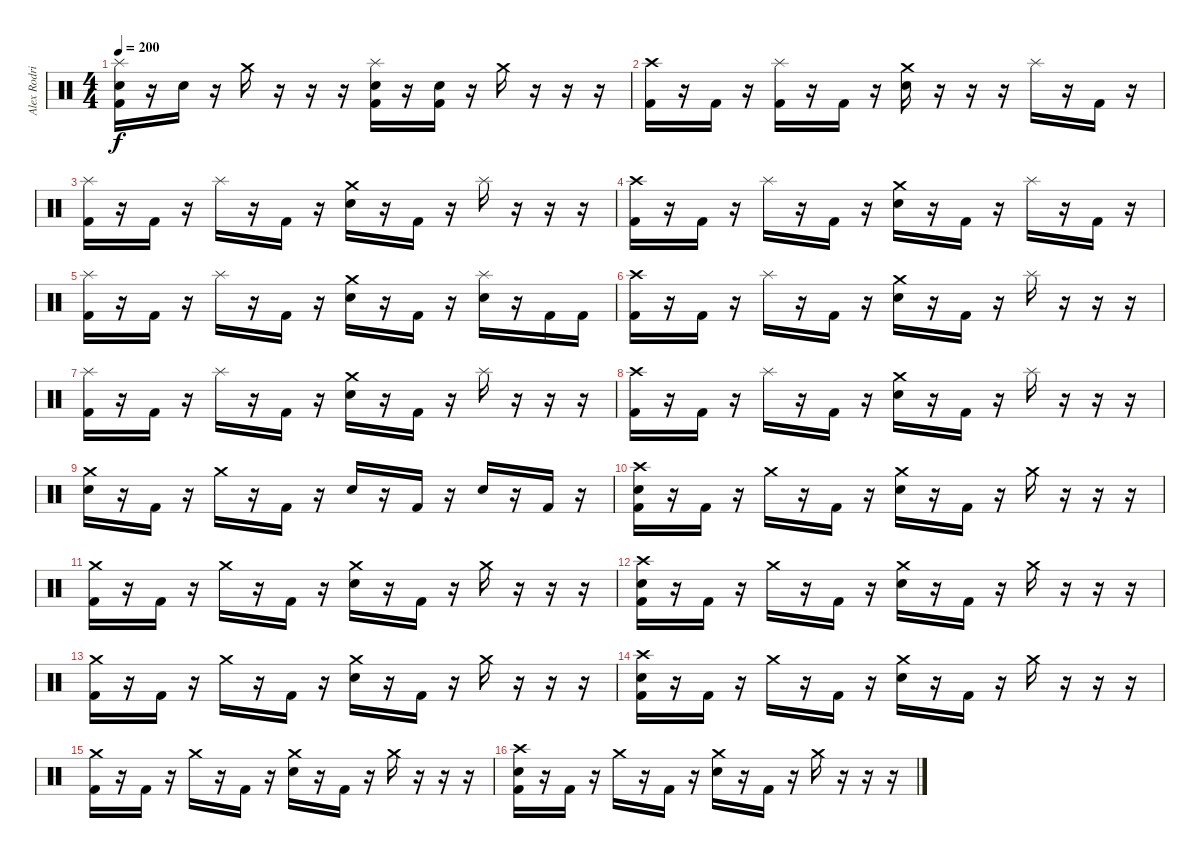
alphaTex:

\track ("Alex Rodriguez" "Alex Rodri") {instrument percussion}
\staff {score}
\articulation defaults
\ts (4 4)
\tempo 200
\clef neutral
\ks c
("Splash (hit)" "Electric Snare (hit)" "Kick (hit) 2").16{dy f} r.16 "Electric Snare (hit)".16 r.16 "Crash medium (hit)".16 r.16 r.16 r.16 ("Splash (hit)" "Electric Snare (hit)" "Kick (hit) 2").16 r.16 ("Electric Snare (hit)" "Kick (hit) 2").16 r.16 "Crash medium (hit)".16 r.16 r.16 r.16 |
("Crash high (hit)" "Kick (hit) 2").16 r.16 "Kick (hit) 2".16 r.16 ("Splash (hit)" "Kick (hit) 2").16 r.16 "Kick (hit) 2".16 r.16 ("Crash medium (hit)" "Electric Snare (hit)").16 r.16 r.16 r.16 "Splash (hit)".16 r.16 "Kick (hit) 2".16 r.16 |
("Splash (hit)" "Kick (hit) 2").16 r.16 "Kick (hit) 2".16 r.16 "Splash (hit)".16 r.16 "Kick (hit) 2".16 r.16 ("Crash medium (hit)" "Electric Snare (hit)").16 r.16 "Kick (hit) 2".16 r.16 "Splash (hit)".16 r.16 r.16 r.16 |
("Crash high (hit)" "Kick (hit) 2").16 r.16 "Kick (hit) 2".16 r.16 "Splash (hit)".16 r.16 "Kick (hit) 2".16 r.16 ("Crash medium (hit)" "Electric Snare (hit)").16 r.16 "Kick (hit) 2".16 r.16 "Splash (hit)".16 r.16 "Kick (hit) 2".16 r.16 |
("Splash (hit)" "Kick (hit) 2").16 r.16 "Kick (hit) 2".16 r.16 "Splash (hit)".16 r.16 "Kick (hit) 2".16 r.16 ("Crash medium (hit)" "Electric Snare (hit)").16 r.16 "Kick (hit) 2".16 r.16 ("Splash (hit)" "Electric Snare (hit)").16 r.16 "Kick (hit) 2".16 "Kick (hit) 2".16 |
("Crash high (hit)" "Kick (hit) 2").16 r.16 "Kick (hit) 2".16 r.16 "Splash (hit)".16 r.16 "Kick (hit) 2".16 r.16 ("Crash medium (hit)" "Electric Snare (hit)").16 r.16 "Kick (hit) 2".16 r.16 "Splash (hit)".16 r.16 r.16 r.16 |
("Splash (hit)" "Kick (hit) 2").16 r.16 "Kick (hit) 2".16 r.16 "Splash (hit)".16 r.16 "Kick (hit) 2".16 r.16 ("Crash medium (hit)" "Electric Snare (hit)").16 r.16 "Kick (hit) 2".16 r.16 "Splash (hit)".16 r.16 r.16 r.16 |
("Crash high (hit)" "Kick (hit) 2").16 r.16 "Kick (hit) 2".16 r.16 "Splash (hit)".16 r.16 "Kick (hit) 2".16 r.16 ("Crash medium (hit)" "Electric Snare (hit)").16 r.16 "Kick (hit) 2".16 r.16 "Splash (hit)".16 r.16 r.16 r.16 |
("Crash medium (hit)" "Electric Snare (hit)").16 r.16 "Kick (hit) 2".16 r.16 "Crash medium (hit)".16 r.16 "Kick (hit) 2".16 r.16 "Electric Snare (hit)".16 r.16 "Kick (hit) 2".16 r.16 "Electric Snare (hit)".16 r.16 "Kick (hit) 2".16 r.16 |
("Crash high (hit)" "Electric Snare (hit)" "Kick (hit) 2").16 r.16 "Kick (hit) 2".16 r.16 "Crash medium (hit)".16 r.16 "Kick (hit) 2".16 r.16 ("Crash medium (hit)" "Electric Snare (hit)").16 r.16 "Kick (hit) 2".16 r.16 "Crash medium (hit)".16 r.16 r.16 r.16 |
("Crash medium (hit)" "Kick (hit) 2").16 r.16 "Kick (hit) 2".16 r.16 "Crash medium (hit)".16 r.16 "Kick (hit) 2".16 r.16 ("Crash medium (hit)" "Electric Snare (hit)").16 r.16 "Kick (hit) 2".16 r.16 "Crash medium (hit)".16 r.16 r.16 r.16 |
("Crash high (hit)" "Electric Snare (hit)" "Kick (hit) 2").16 r.16 "Kick (hit) 2".16 r.16 "Crash medium (hit)".16 r.16 "Kick (hit) 2".16 r.16 ("Crash medium (hit)" "Electric Snare (hit)").16 r.16 "Kick (hit) 2".16 r.16 "Crash medium (hit)".16 r.16 r.16 r.16 |
("Crash medium (hit)" "Kick (hit) 2").16 r.16 "Kick (hit) 2".16 r.16 "Crash medium (hit)".16 r.16 "Kick (hit) 2".16 r.16 ("Crash medium (hit)" "Electric Snare (hit)").16 r.16 "Kick (hit) 2".16 r.16 "Crash medium (hit)".16 r.16 r.16 r.16 |
("Crash high (hit)" "Electric Snare (hit)" "Kick (hit) 2").16 r.16 "Kick (hit) 2".16 r.16 "Crash medium (hit)".16 r.16 "Kick (hit) 2".16 r.16 ("Crash medium (hit)" "Electric Snare (hit)").16 r.16 "Kick (hit) 2".16 r.16 "Crash medium (hit)".16 r.16 r.16 r.16 |
("Crash medium (hit)" "Kick (hit) 2").16 r.16 "Kick (hit) 2".16 r.16 "Crash medium (hit)".16 r.16 "Kick (hit) 2".16 r.16 ("Crash medium (hit)" "Electric Snare (hit)").16 r.16 "Kick (hit) 2".16 r.16 "Crash medium (hit)".16 r.16 r.16 r.16 |
("Crash high (hit)" "Electric Snare (hit)" "Kick (hit) 2").16 r.16 "Kick (hit) 2".16 r.16 "Crash medium (hit)".16 r.16 "Kick (hit) 2".16 r.16 ("Crash medium (hit)" "Electric Snare (hit)").16 r.16 "Kick (hit) 2".16 r.16 "Crash medium (hit)".16 r.16 r.16 r.16
